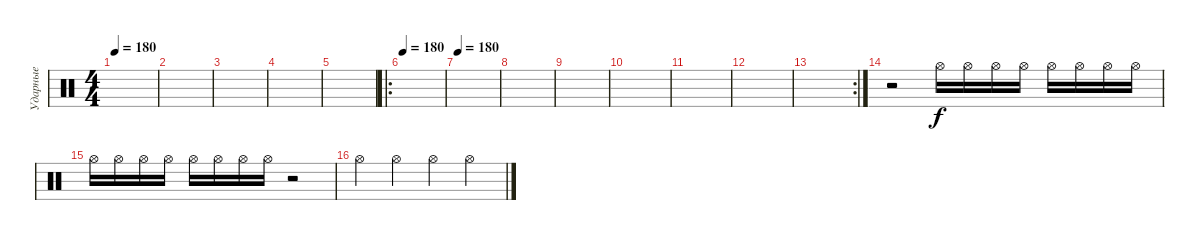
\track ("Ударные" "Ударные") {instrument percussion}
\staff {score}
\articulation defaults
\ts (4 4)
\tempo 180
\clef neutral
\ks c
|
|
|
|
|
\ro
\tempo 180
|
\tempo 180
|
|
|
|
|
|
\rc 2
|
r.2 "Hi-Hat (open)".16 "Hi-Hat (open)".16 "Hi-Hat (open)".16 "Hi-Hat (open)".16 "Hi-Hat (open)".16 "Hi-Hat (open)".16 "Hi-Hat (open)".16 "Hi-Hat (open)".16 |
"Hi-Hat (open)".16 "Hi-Hat (open)".16 "Hi-Hat (open)".16 "Hi-Hat (open)".16 "Hi-Hat (open)".16 "Hi-Hat (open)".16 "Hi-Hat (open)".16 "Hi-Hat (open)".16 r.2 |
"Hi-Hat (open)".4 "Hi-Hat (open)".4 "Hi-Hat (open)".4 "Hi-Hat (open)".4
